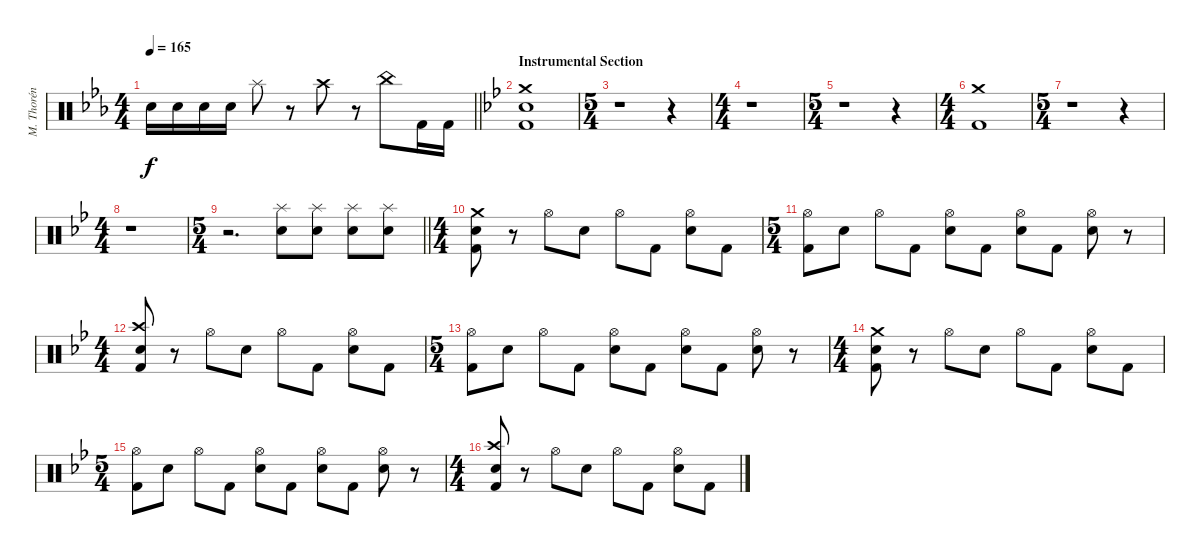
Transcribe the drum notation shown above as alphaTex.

\track ("M. Thorén (Drums)" "M. Thorén ") {instrument percussion}
\staff {score}
\articulation defaults
\ts (4 4)
\tempo 165
\clef neutral
\barLineRight lightlight
\ks cminor "Electric Snare (hit)".16{dy f} "Electric Snare (hit)".16 "Electric Snare (hit)".16 "Electric Snare (hit)".16 "Splash (hit)".8
r.8 "Crash high (hit)".8 r.8 "China (hit)".8 "Kick (hit) 2".16 "Kick (hit) 2".16 |
\section ("" "Instrumental Section")
\ks gminor
("Crash medium (hit)" "Electric Snare (hit)" "Kick (hit) 2").1 |
\ts (5 4)
r.1 r.4 |
\ts (4 4)
r.1 |
\ts (5 4)
r.1 r.4 |
\ts (4 4)
("Crash medium (hit)" "Kick (hit) 2").1 |
\ts (5 4)
r.1 r.4 |
\ts (4 4)
r.1 |
\ts (5 4)
\barLineRight lightlight
r.2{d} ("Splash (hit)" "Electric Snare (hit)").8 ("Splash (hit)" "Electric Snare (hit)").8 ("Splash (hit)" "Electric Snare (hit)").8 ("Splash (hit)" "Electric Snare (hit)").8 |
\ts (4 4)
("Crash medium (hit)" "Electric Snare (hit)" "Kick (hit) 2").8 r.8 "Hi-Hat (open)".8 "Electric Snare (hit)".8 "Hi-Hat (open)".8 "Kick (hit) 2".8 ("Hi-Hat (open)" "Electric Snare (hit)").8 "Kick (hit) 2".8 |
\ts (5 4)
("Hi-Hat (open)" "Kick (hit) 2").8 "Electric Snare (hit)".8 "Hi-Hat (open)".8 "Kick (hit) 2".8 ("Hi-Hat (open)" "Electric Snare (hit)").8 "Kick (hit) 2".8 ("Hi-Hat (open)" "Electric Snare (hit)").8 "Kick (hit) 2".8 ("Hi-Hat (open)" "Electric Snare (hit)").8 r.8 |
\ts (4 4)
("Crash high (hit)" "Electric Snare (hit)" "Kick (hit) 2").8 r.8 "Hi-Hat (open)".8 "Electric Snare (hit)".8 "Hi-Hat (open)".8 "Kick (hit) 2".8 ("Hi-Hat (open)" "Electric Snare (hit)").8 "Kick (hit) 2".8 |
\ts (5 4)
("Hi-Hat (open)" "Kick (hit) 2").8 "Electric Snare (hit)".8 "Hi-Hat (open)".8 "Kick (hit) 2".8 ("Hi-Hat (open)" "Electric Snare (hit)").8 "Kick (hit) 2".8 ("Hi-Hat (open)" "Electric Snare (hit)").8 "Kick (hit) 2".8 ("Hi-Hat (open)" "Electric Snare (hit)").8 r.8 |
\ts (4 4)
("Crash medium (hit)" "Electric Snare (hit)" "Kick (hit) 2").8 r.8 "Hi-Hat (open)".8 "Electric Snare (hit)".8 "Hi-Hat (open)".8 "Kick (hit) 2".8 ("Hi-Hat (open)" "Electric Snare (hit)").8 "Kick (hit) 2".8 |
\ts (5 4)
("Hi-Hat (open)" "Kick (hit) 2").8 "Electric Snare (hit)".8 "Hi-Hat (open)".8 "Kick (hit) 2".8 ("Hi-Hat (open)" "Electric Snare (hit)").8 "Kick (hit) 2".8 ("Hi-Hat (open)" "Electric Snare (hit)").8 "Kick (hit) 2".8 ("Hi-Hat (open)" "Electric Snare (hit)").8 r.8 |
\ts (4 4)
("Crash high (hit)" "Electric Snare (hit)" "Kick (hit) 2").8 r.8 "Hi-Hat (open)".8 "Electric Snare (hit)".8 "Hi-Hat (open)".8 "Kick (hit) 2".8 ("Hi-Hat (open)" "Electric Snare (hit)").8 "Kick (hit) 2".8
